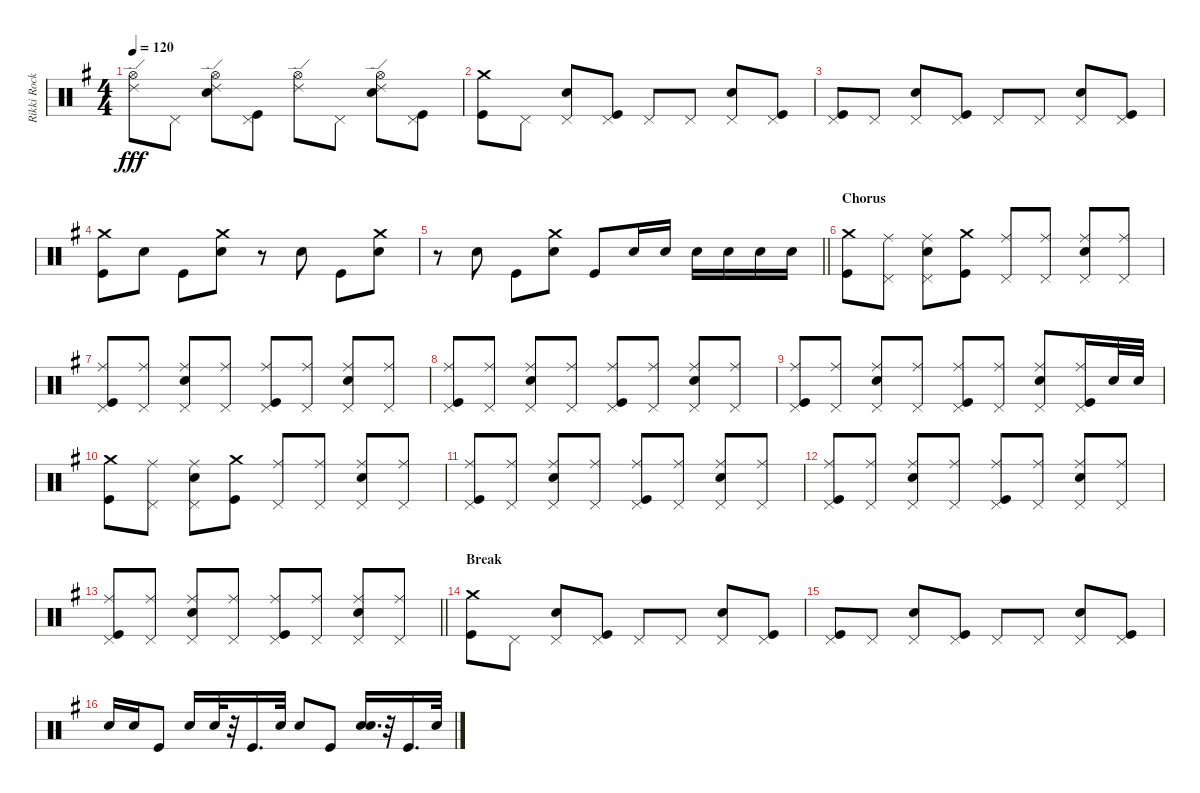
\track ("Rikki Rocket: Drums" "Rikki Rock") {instrument percussion}
\staff {score}
\articulation defaults
\ts (4 4)
\tempo 120
\clef neutral
\ks g
("Hi-Hat (open)" "Ride (edge) 2").8{dy fff} "Pedal Hi-Hat (hit)".8 ("Hi-Hat (open)" "Ride (edge) 2" "Electric Snare (hit)").8 ("Pedal Hi-Hat (hit)" "Kick (hit)").8 ("Hi-Hat (open)" "Ride (edge) 2").8 "Pedal Hi-Hat (hit)".8 ("Hi-Hat (open)" "Ride (edge) 2" "Electric Snare (hit)").8 ("Pedal Hi-Hat (hit)" "Kick (hit)").8 |
("Crash medium (hit)" "Kick (hit)").8 "Pedal Hi-Hat (hit)".8 ("Pedal Hi-Hat (hit)" "Electric Snare (hit)").8 ("Pedal Hi-Hat (hit)" "Kick (hit)").8 "Pedal Hi-Hat (hit)".8 "Pedal Hi-Hat (hit)".8 ("Pedal Hi-Hat (hit)" "Electric Snare (hit)").8 ("Pedal Hi-Hat (hit)" "Kick (hit)").8 |
("Pedal Hi-Hat (hit)" "Kick (hit)").8 "Pedal Hi-Hat (hit)".8 ("Pedal Hi-Hat (hit)" "Electric Snare (hit)").8 ("Pedal Hi-Hat (hit)" "Kick (hit)").8 "Pedal Hi-Hat (hit)".8 "Pedal Hi-Hat (hit)".8 ("Pedal Hi-Hat (hit)" "Electric Snare (hit)").8 ("Pedal Hi-Hat (hit)" "Kick (hit)").8 |
("Crash medium (hit)" "Kick (hit)").8 "Electric Snare (hit)".8 "Kick (hit)".8 ("Crash medium (hit)" "Electric Snare (hit)").8 r.8 "Electric Snare (hit)".8 "Kick (hit)".8 ("Crash medium (hit)" "Electric Snare (hit)").8 |
\barLineRight lightlight
r.8 "Electric Snare (hit)".8 "Kick (hit)".8 ("Crash medium (hit)" "Electric Snare (hit)").8 "Kick (hit)".8 "Electric Snare (hit)".16 "Electric Snare (hit)".16 "Electric Snare (hit)".16 "Electric Snare (hit)".16 "Electric Snare (hit)".16 "Electric Snare (hit)".16 |
\section ("" "Chorus")
("Crash medium (hit)" "Kick (hit)").8 ("Ride (middle)" "Pedal Hi-Hat (hit)").8 ("Ride (middle)" "Pedal Hi-Hat (hit)" "Electric Snare (hit)").8 ("Crash medium (hit)" "Kick (hit)").8 ("Ride (middle)" "Pedal Hi-Hat (hit)").8 ("Ride (middle)" "Pedal Hi-Hat (hit)").8 ("Ride (middle)" "Pedal Hi-Hat (hit)" "Electric Snare (hit)").8 ("Ride (middle)" "Pedal Hi-Hat (hit)").8 |
("Ride (middle)" "Pedal Hi-Hat (hit)" "Kick (hit)").8 ("Ride (middle)" "Pedal Hi-Hat (hit)").8 ("Ride (middle)" "Pedal Hi-Hat (hit)" "Electric Snare (hit)").8 ("Ride (middle)" "Pedal Hi-Hat (hit)").8 ("Ride (middle)" "Pedal Hi-Hat (hit)" "Kick (hit)").8 ("Ride (middle)" "Pedal Hi-Hat (hit)").8 ("Ride (middle)" "Pedal Hi-Hat (hit)" "Electric Snare (hit)").8 ("Ride (middle)" "Pedal Hi-Hat (hit)").8 |
("Ride (middle)" "Pedal Hi-Hat (hit)" "Kick (hit)").8 ("Ride (middle)" "Pedal Hi-Hat (hit)").8 ("Ride (middle)" "Pedal Hi-Hat (hit)" "Electric Snare (hit)").8 ("Ride (middle)" "Pedal Hi-Hat (hit)").8 ("Ride (middle)" "Pedal Hi-Hat (hit)" "Kick (hit)").8 ("Ride (middle)" "Pedal Hi-Hat (hit)").8 ("Ride (middle)" "Pedal Hi-Hat (hit)" "Electric Snare (hit)").8 ("Ride (middle)" "Pedal Hi-Hat (hit)").8 |
("Ride (middle)" "Pedal Hi-Hat (hit)" "Kick (hit)").8 ("Ride (middle)" "Pedal Hi-Hat (hit)").8 ("Ride (middle)" "Pedal Hi-Hat (hit)" "Electric Snare (hit)").8 ("Ride (middle)" "Pedal Hi-Hat (hit)").8 ("Ride (middle)" "Pedal Hi-Hat (hit)" "Kick (hit)").8 ("Ride (middle)" "Pedal Hi-Hat (hit)").8 ("Ride (middle)" "Pedal Hi-Hat (hit)" "Electric Snare (hit)").8 ("Ride (middle)" "Pedal Hi-Hat (hit)" "Kick (hit)").16 "Electric Snare (hit)".32 "Electric Snare (hit)".32 |
("Crash medium (hit)" "Kick (hit)").8 ("Ride (middle)" "Pedal Hi-Hat (hit)").8 ("Ride (middle)" "Pedal Hi-Hat (hit)" "Electric Snare (hit)").8 ("Crash medium (hit)" "Kick (hit)").8 ("Ride (middle)" "Pedal Hi-Hat (hit)").8 ("Ride (middle)" "Pedal Hi-Hat (hit)").8 ("Ride (middle)" "Pedal Hi-Hat (hit)" "Electric Snare (hit)").8 ("Ride (middle)" "Pedal Hi-Hat (hit)").8 |
("Ride (middle)" "Pedal Hi-Hat (hit)" "Kick (hit)").8 ("Ride (middle)" "Pedal Hi-Hat (hit)").8 ("Ride (middle)" "Pedal Hi-Hat (hit)" "Electric Snare (hit)").8 ("Ride (middle)" "Pedal Hi-Hat (hit)").8 ("Ride (middle)" "Pedal Hi-Hat (hit)" "Kick (hit)").8 ("Ride (middle)" "Pedal Hi-Hat (hit)").8 ("Ride (middle)" "Pedal Hi-Hat (hit)" "Electric Snare (hit)").8 ("Ride (middle)" "Pedal Hi-Hat (hit)").8 |
("Ride (middle)" "Pedal Hi-Hat (hit)" "Kick (hit)").8 ("Ride (middle)" "Pedal Hi-Hat (hit)").8 ("Ride (middle)" "Pedal Hi-Hat (hit)" "Electric Snare (hit)").8 ("Ride (middle)" "Pedal Hi-Hat (hit)").8 ("Ride (middle)" "Pedal Hi-Hat (hit)" "Kick (hit)").8 ("Ride (middle)" "Pedal Hi-Hat (hit)").8 ("Ride (middle)" "Pedal Hi-Hat (hit)" "Electric Snare (hit)").8 ("Ride (middle)" "Pedal Hi-Hat (hit)").8 |
\barLineRight lightlight
("Ride (middle)" "Pedal Hi-Hat (hit)" "Kick (hit)").8 ("Ride (middle)" "Pedal Hi-Hat (hit)").8 ("Ride (middle)" "Pedal Hi-Hat (hit)" "Electric Snare (hit)").8 ("Ride (middle)" "Pedal Hi-Hat (hit)").8 ("Ride (middle)" "Pedal Hi-Hat (hit)" "Kick (hit)").8 ("Ride (middle)" "Pedal Hi-Hat (hit)").8 ("Ride (middle)" "Pedal Hi-Hat (hit)" "Electric Snare (hit)").8 ("Ride (middle)" "Pedal Hi-Hat (hit)").8 |
\section ("" "Break")
("Crash medium (hit)" "Kick (hit)").8 "Pedal Hi-Hat (hit)".8 ("Pedal Hi-Hat (hit)" "Electric Snare (hit)").8 ("Pedal Hi-Hat (hit)" "Kick (hit)").8 "Pedal Hi-Hat (hit)".8 "Pedal Hi-Hat (hit)".8 ("Pedal Hi-Hat (hit)" "Electric Snare (hit)").8 ("Pedal Hi-Hat (hit)" "Kick (hit)").8 |
("Pedal Hi-Hat (hit)" "Kick (hit)").8 "Pedal Hi-Hat (hit)".8 ("Pedal Hi-Hat (hit)" "Electric Snare (hit)").8 ("Pedal Hi-Hat (hit)" "Kick (hit)").8 "Pedal Hi-Hat (hit)".8 "Pedal Hi-Hat (hit)".8 ("Pedal Hi-Hat (hit)" "Electric Snare (hit)").8 ("Pedal Hi-Hat (hit)" "Kick (hit)").8 |
"Electric Snare (hit)".16 "Electric Snare (hit)".16 "Kick (hit)".8 "Electric Snare (hit)".16 "Electric Snare (hit)".32 r.32 "Kick (hit)".16{d} "Electric Snare (hit)".32 "Electric Snare (hit)".8 "Kick (hit)".8 ("Electric Snare (hit)" "Electric Snare (hit)").16{d} r.32 "Kick (hit)".16{d} "Electric Snare (hit)".32
